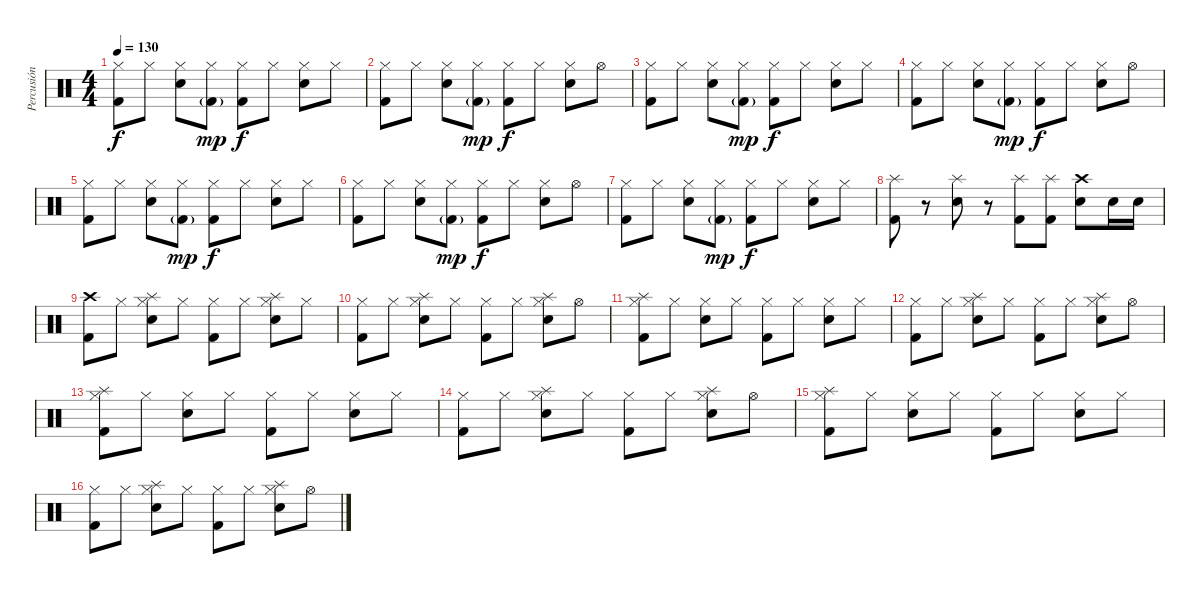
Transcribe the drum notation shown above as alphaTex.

\track ("Percusión" "Percusión") {instrument percussion}
\staff {score}
\articulation defaults
\ts (4 4)
\tempo 130
\clef neutral
\ks c
("Hi-Hat (closed)" "Kick (hit) 2").8{dy f} "Hi-Hat (closed)".8 ("Hi-Hat (closed)" "Snare (hit) 2").8 ("Hi-Hat (closed)" "Kick (hit) 2"{g}).8{dy mp} ("Hi-Hat (closed)" "Kick (hit) 2").8{dy f} "Hi-Hat (closed)".8 ("Hi-Hat (closed)" "Snare (hit) 2").8 "Hi-Hat (closed)".8 |
("Hi-Hat (closed)" "Kick (hit) 2").8 "Hi-Hat (closed)".8 ("Hi-Hat (closed)" "Snare (hit) 2").8 ("Hi-Hat (closed)" "Kick (hit) 2"{g}).8{dy mp} ("Hi-Hat (closed)" "Kick (hit) 2").8{dy f} "Hi-Hat (closed)".8 ("Hi-Hat (closed)" "Snare (hit) 2").8 "Hi-Hat (open)".8 |
("Hi-Hat (closed)" "Kick (hit) 2").8 "Hi-Hat (closed)".8 ("Hi-Hat (closed)" "Snare (hit) 2").8 ("Hi-Hat (closed)" "Kick (hit) 2"{g}).8{dy mp} ("Hi-Hat (closed)" "Kick (hit) 2").8{dy f} "Hi-Hat (closed)".8 ("Hi-Hat (closed)" "Snare (hit) 2").8 "Hi-Hat (closed)".8 |
("Hi-Hat (closed)" "Kick (hit) 2").8 "Hi-Hat (closed)".8 ("Hi-Hat (closed)" "Snare (hit) 2").8 ("Hi-Hat (closed)" "Kick (hit) 2"{g}).8{dy mp} ("Hi-Hat (closed)" "Kick (hit) 2").8{dy f} "Hi-Hat (closed)".8 ("Hi-Hat (closed)" "Snare (hit) 2").8 "Hi-Hat (open)".8 |
("Hi-Hat (closed)" "Kick (hit) 2").8 "Hi-Hat (closed)".8 ("Hi-Hat (closed)" "Snare (hit) 2").8 ("Hi-Hat (closed)" "Kick (hit) 2"{g}).8{dy mp} ("Hi-Hat (closed)" "Kick (hit) 2").8{dy f} "Hi-Hat (closed)".8 ("Hi-Hat (closed)" "Snare (hit) 2").8 "Hi-Hat (closed)".8 |
("Hi-Hat (closed)" "Kick (hit) 2").8 "Hi-Hat (closed)".8 ("Hi-Hat (closed)" "Snare (hit) 2").8 ("Hi-Hat (closed)" "Kick (hit) 2"{g}).8{dy mp} ("Hi-Hat (closed)" "Kick (hit) 2").8{dy f} "Hi-Hat (closed)".8 ("Hi-Hat (closed)" "Snare (hit) 2").8 "Hi-Hat (open)".8 |
("Hi-Hat (closed)" "Kick (hit) 2").8 "Hi-Hat (closed)".8 ("Hi-Hat (closed)" "Snare (hit) 2").8 ("Hi-Hat (closed)" "Kick (hit) 2"{g}).8{dy mp} ("Hi-Hat (closed)" "Kick (hit) 2").8{dy f} "Hi-Hat (closed)".8 ("Hi-Hat (closed)" "Snare (hit) 2").8 "Hi-Hat (closed)".8 |
("Splash (hit)" "Kick (hit) 2").8 r.8 ("Splash (hit)" "Snare (hit) 2").8 r.8 ("Splash (hit)" "Kick (hit) 2").8 ("Splash (hit)" "Kick (hit) 2").8 ("Crash high (hit)" "Snare (hit) 2").8 "Snare (hit) 2".16 "Snare (hit) 2".16 |
("Crash high (hit)" "Kick (hit) 2").8 "Hi-Hat (closed)".8 ("Hi-Hat (closed)" "Snare (hit) 2" "Splash (hit)").8 "Hi-Hat (closed)".8 ("Hi-Hat (closed)" "Kick (hit) 2").8 "Hi-Hat (closed)".8 ("Hi-Hat (closed)" "Snare (hit) 2" "Splash (hit)").8 "Hi-Hat (closed)".8 |
("Hi-Hat (closed)" "Kick (hit) 2").8 "Hi-Hat (closed)".8 ("Hi-Hat (closed)" "Snare (hit) 2" "Splash (hit)").8 "Hi-Hat (closed)".8 ("Hi-Hat (closed)" "Kick (hit) 2").8 "Hi-Hat (closed)".8 ("Hi-Hat (closed)" "Snare (hit) 2" "Splash (hit)").8 "Hi-Hat (open)".8 |
("Hi-Hat (closed)" "Kick (hit) 2" "Splash (hit)").8 "Hi-Hat (closed)".8 ("Hi-Hat (closed)" "Snare (hit) 2").8 "Hi-Hat (closed)".8 ("Hi-Hat (closed)" "Kick (hit) 2").8 "Hi-Hat (closed)".8 ("Hi-Hat (closed)" "Snare (hit) 2").8 "Hi-Hat (closed)".8 |
("Hi-Hat (closed)" "Kick (hit) 2").8 "Hi-Hat (closed)".8 ("Hi-Hat (closed)" "Snare (hit) 2" "Splash (hit)").8 "Hi-Hat (closed)".8 ("Hi-Hat (closed)" "Kick (hit) 2").8 "Hi-Hat (closed)".8 ("Hi-Hat (closed)" "Snare (hit) 2" "Splash (hit)").8 "Hi-Hat (open)".8 |
("Hi-Hat (closed)" "Kick (hit) 2" "Splash (hit)").8 "Hi-Hat (closed)".8 ("Hi-Hat (closed)" "Snare (hit) 2").8 "Hi-Hat (closed)".8 ("Hi-Hat (closed)" "Kick (hit) 2").8 "Hi-Hat (closed)".8 ("Hi-Hat (closed)" "Snare (hit) 2").8 "Hi-Hat (closed)".8 |
("Hi-Hat (closed)" "Kick (hit) 2").8 "Hi-Hat (closed)".8 ("Hi-Hat (closed)" "Snare (hit) 2" "Splash (hit)").8 "Hi-Hat (closed)".8 ("Hi-Hat (closed)" "Kick (hit) 2").8 "Hi-Hat (closed)".8 ("Hi-Hat (closed)" "Snare (hit) 2" "Splash (hit)").8 "Hi-Hat (open)".8 |
("Hi-Hat (closed)" "Kick (hit) 2" "Splash (hit)").8 "Hi-Hat (closed)".8 ("Hi-Hat (closed)" "Snare (hit) 2").8 "Hi-Hat (closed)".8 ("Hi-Hat (closed)" "Kick (hit) 2").8 "Hi-Hat (closed)".8 ("Hi-Hat (closed)" "Snare (hit) 2").8 "Hi-Hat (closed)".8 |
("Hi-Hat (closed)" "Kick (hit) 2").8 "Hi-Hat (closed)".8 ("Hi-Hat (closed)" "Snare (hit) 2" "Splash (hit)").8 "Hi-Hat (closed)".8 ("Hi-Hat (closed)" "Kick (hit) 2").8 "Hi-Hat (closed)".8 ("Hi-Hat (closed)" "Snare (hit) 2" "Splash (hit)").8 "Hi-Hat (open)".8
